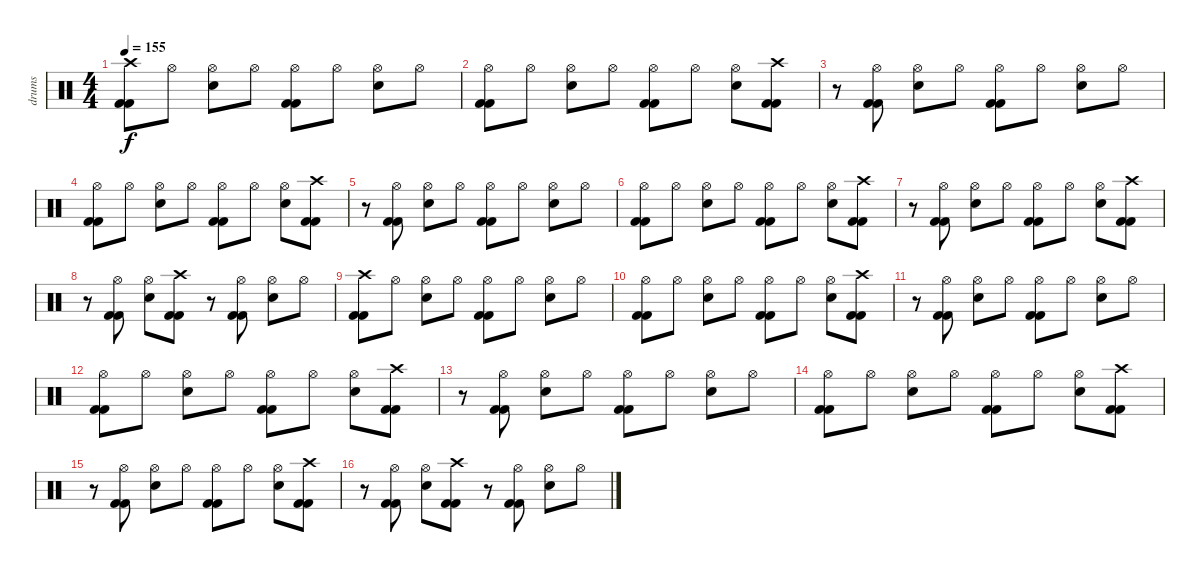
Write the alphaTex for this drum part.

\track ("drums" "drums") {instrument percussion}
\staff {score}
\articulation defaults
\ts (4 4)
\tempo 155
\clef neutral
\ks c
("Crash high (hit)" "Kick (hit) 2" "Kick (hit) 2").8{dy f} "Hi-Hat (open)".8 ("Hi-Hat (open)" "Electric Snare (hit)").8 "Hi-Hat (open)".8 ("Hi-Hat (open)" "Kick (hit) 2" "Kick (hit) 2").8 "Hi-Hat (open)".8 ("Hi-Hat (open)" "Electric Snare (hit)").8 "Hi-Hat (open)".8 |
("Hi-Hat (open)" "Kick (hit) 2" "Kick (hit) 2").8 "Hi-Hat (open)".8 ("Hi-Hat (open)" "Electric Snare (hit)").8 "Hi-Hat (open)".8 ("Hi-Hat (open)" "Kick (hit) 2" "Kick (hit) 2").8 "Hi-Hat (open)".8 ("Hi-Hat (open)" "Electric Snare (hit)").8 ("Crash high (hit)" "Kick (hit) 2" "Kick (hit) 2").8 |
r.8 ("Hi-Hat (open)" "Kick (hit) 2" "Kick (hit) 2").8 ("Hi-Hat (open)" "Electric Snare (hit)").8 "Hi-Hat (open)".8 ("Hi-Hat (open)" "Kick (hit) 2" "Kick (hit) 2").8 "Hi-Hat (open)".8 ("Hi-Hat (open)" "Electric Snare (hit)").8 "Hi-Hat (open)".8 |
("Hi-Hat (open)" "Kick (hit) 2" "Kick (hit) 2").8 "Hi-Hat (open)".8 ("Hi-Hat (open)" "Electric Snare (hit)").8 "Hi-Hat (open)".8 ("Hi-Hat (open)" "Kick (hit) 2" "Kick (hit) 2").8 "Hi-Hat (open)".8 ("Hi-Hat (open)" "Electric Snare (hit)").8 ("Crash high (hit)" "Kick (hit) 2" "Kick (hit) 2").8 |
r.8 ("Hi-Hat (open)" "Kick (hit) 2" "Kick (hit) 2").8 ("Hi-Hat (open)" "Electric Snare (hit)").8 "Hi-Hat (open)".8 ("Hi-Hat (open)" "Kick (hit) 2" "Kick (hit) 2").8 "Hi-Hat (open)".8 ("Hi-Hat (open)" "Electric Snare (hit)").8 "Hi-Hat (open)".8 |
("Hi-Hat (open)" "Kick (hit) 2" "Kick (hit) 2").8 "Hi-Hat (open)".8 ("Hi-Hat (open)" "Electric Snare (hit)").8 "Hi-Hat (open)".8 ("Hi-Hat (open)" "Kick (hit) 2" "Kick (hit) 2").8 "Hi-Hat (open)".8 ("Hi-Hat (open)" "Electric Snare (hit)").8 ("Crash high (hit)" "Kick (hit) 2" "Kick (hit) 2").8 |
r.8 ("Hi-Hat (open)" "Kick (hit) 2" "Kick (hit) 2").8 ("Hi-Hat (open)" "Electric Snare (hit)").8 "Hi-Hat (open)".8 ("Hi-Hat (open)" "Kick (hit) 2" "Kick (hit) 2").8 "Hi-Hat (open)".8 ("Hi-Hat (open)" "Electric Snare (hit)").8 ("Crash high (hit)" "Kick (hit) 2" "Kick (hit) 2").8 |
r.8 ("Hi-Hat (open)" "Kick (hit) 2" "Kick (hit) 2").8 ("Hi-Hat (open)" "Electric Snare (hit)").8 ("Crash high (hit)" "Kick (hit) 2" "Kick (hit) 2").8 r.8 ("Hi-Hat (open)" "Kick (hit) 2" "Kick (hit) 2").8 ("Hi-Hat (open)" "Electric Snare (hit)").8 "Hi-Hat (open)".8 |
("Crash high (hit)" "Kick (hit) 2" "Kick (hit) 2").8 "Hi-Hat (open)".8 ("Hi-Hat (open)" "Electric Snare (hit)").8 "Hi-Hat (open)".8 ("Hi-Hat (open)" "Kick (hit) 2" "Kick (hit) 2").8 "Hi-Hat (open)".8 ("Hi-Hat (open)" "Electric Snare (hit)").8 "Hi-Hat (open)".8 |
("Hi-Hat (open)" "Kick (hit) 2" "Kick (hit) 2").8 "Hi-Hat (open)".8 ("Hi-Hat (open)" "Electric Snare (hit)").8 "Hi-Hat (open)".8 ("Hi-Hat (open)" "Kick (hit) 2" "Kick (hit) 2").8 "Hi-Hat (open)".8 ("Hi-Hat (open)" "Electric Snare (hit)").8 ("Crash high (hit)" "Kick (hit) 2" "Kick (hit) 2").8 |
r.8 ("Hi-Hat (open)" "Kick (hit) 2" "Kick (hit) 2").8 ("Hi-Hat (open)" "Electric Snare (hit)").8 "Hi-Hat (open)".8 ("Hi-Hat (open)" "Kick (hit) 2" "Kick (hit) 2").8 "Hi-Hat (open)".8 ("Hi-Hat (open)" "Electric Snare (hit)").8 "Hi-Hat (open)".8 |
("Hi-Hat (open)" "Kick (hit) 2" "Kick (hit) 2").8 "Hi-Hat (open)".8 ("Hi-Hat (open)" "Electric Snare (hit)").8 "Hi-Hat (open)".8 ("Hi-Hat (open)" "Kick (hit) 2" "Kick (hit) 2").8 "Hi-Hat (open)".8 ("Hi-Hat (open)" "Electric Snare (hit)").8 ("Crash high (hit)" "Kick (hit) 2" "Kick (hit) 2").8 |
r.8 ("Hi-Hat (open)" "Kick (hit) 2" "Kick (hit) 2").8 ("Hi-Hat (open)" "Electric Snare (hit)").8 "Hi-Hat (open)".8 ("Hi-Hat (open)" "Kick (hit) 2" "Kick (hit) 2").8 "Hi-Hat (open)".8 ("Hi-Hat (open)" "Electric Snare (hit)").8 "Hi-Hat (open)".8 |
("Hi-Hat (open)" "Kick (hit) 2" "Kick (hit) 2").8 "Hi-Hat (open)".8 ("Hi-Hat (open)" "Electric Snare (hit)").8 "Hi-Hat (open)".8 ("Hi-Hat (open)" "Kick (hit) 2" "Kick (hit) 2").8 "Hi-Hat (open)".8 ("Hi-Hat (open)" "Electric Snare (hit)").8 ("Crash high (hit)" "Kick (hit) 2" "Kick (hit) 2").8 |
r.8 ("Hi-Hat (open)" "Kick (hit) 2" "Kick (hit) 2").8 ("Hi-Hat (open)" "Electric Snare (hit)").8 "Hi-Hat (open)".8 ("Hi-Hat (open)" "Kick (hit) 2" "Kick (hit) 2").8 "Hi-Hat (open)".8 ("Hi-Hat (open)" "Electric Snare (hit)").8 ("Crash high (hit)" "Kick (hit) 2" "Kick (hit) 2").8 |
r.8 ("Hi-Hat (open)" "Kick (hit) 2" "Kick (hit) 2").8 ("Hi-Hat (open)" "Electric Snare (hit)").8 ("Crash high (hit)" "Kick (hit) 2" "Kick (hit) 2").8 r.8 ("Hi-Hat (open)" "Kick (hit) 2" "Kick (hit) 2").8 ("Hi-Hat (open)" "Electric Snare (hit)").8 "Hi-Hat (open)".8
